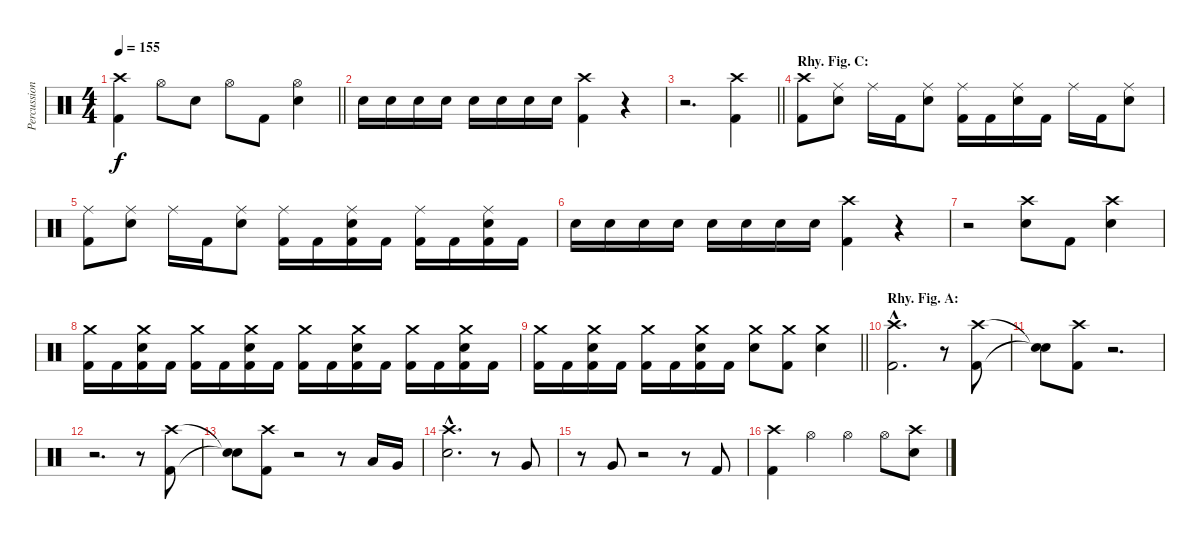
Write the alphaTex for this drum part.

\track ("Percussion" "Percussion") {instrument percussion}
\staff {score}
\articulation defaults
\ts (4 4)
\tempo 155
\clef neutral
\barLineRight lightlight
\ks c
("Crash high (hit)" "Kick (hit) 2").4{dy f} "Hi-Hat (open)".8 "Electric Snare (hit)".8 "Hi-Hat (open)".8 "Kick (hit) 2".8 ("Hi-Hat (open)" "Electric Snare (hit)").4 |
"Electric Snare (hit)".16 "Electric Snare (hit)".16 "Electric Snare (hit)".16 "Electric Snare (hit)".16 "Electric Snare (hit)".16 "Electric Snare (hit)".16 "Electric Snare (hit)".16 "Electric Snare (hit)".16 ("Crash high (hit)" "Kick (hit) 2").4 r.4 |
\barLineRight lightlight
r.2{d} ("Crash high (hit)" "Kick (hit) 2").4 |
\section ("" "Rhy. Fig. C:")
("Crash high (hit)" "Kick (hit) 2").8 ("Ride (middle)" "Electric Snare (hit)").8 "Ride (middle)".16 "Kick (hit) 2".16 ("Ride (middle)" "Electric Snare (hit)").8 ("Ride (middle)" "Kick (hit) 2").16 "Kick (hit) 2".16 ("Ride (middle)" "Electric Snare (hit)").16 "Kick (hit) 2".16 "Ride (middle)".16 "Kick (hit) 2".16 ("Ride (middle)" "Electric Snare (hit)").8 |
("Ride (middle)" "Kick (hit) 2").8 ("Ride (middle)" "Electric Snare (hit)").8 "Ride (middle)".16 "Kick (hit) 2".16 ("Ride (middle)" "Electric Snare (hit)").8 ("Ride (middle)" "Kick (hit) 2").16 "Kick (hit) 2".16 ("Ride (middle)" "Electric Snare (hit)" "Kick (hit) 2").16 "Kick (hit) 2".16 ("Ride (middle)" "Kick (hit) 2").16 "Kick (hit) 2".16 ("Ride (middle)" "Electric Snare (hit)" "Kick (hit) 2").16 "Kick (hit) 2".16 |
"Electric Snare (hit)".16 "Electric Snare (hit)".16 "Electric Snare (hit)".16 "Electric Snare (hit)".16 "Electric Snare (hit)".16 "Electric Snare (hit)".16 "Electric Snare (hit)".16 "Electric Snare (hit)".16 ("Crash high (hit)" "Kick (hit) 2").4 r.4 |
r.2 ("Crash high (hit)" "Electric Snare (hit)").8 "Kick (hit) 2".8 ("Crash high (hit)" "Electric Snare (hit)").4 |
("Crash medium (hit)" "Kick (hit) 2").16 "Kick (hit) 2".16 ("Crash medium (hit)" "Electric Snare (hit)" "Kick (hit) 2").16 "Kick (hit) 2".16 ("Crash medium (hit)" "Kick (hit) 2").16 "Kick (hit) 2".16 ("Crash medium (hit)" "Electric Snare (hit)" "Kick (hit) 2").16 "Kick (hit) 2".16 ("Crash medium (hit)" "Kick (hit) 2").16 "Kick (hit) 2".16 ("Crash medium (hit)" "Electric Snare (hit)" "Kick (hit) 2").16 "Kick (hit) 2".16 ("Crash medium (hit)" "Kick (hit) 2").16 "Kick (hit) 2".16 ("Crash medium (hit)" "Electric Snare (hit)" "Kick (hit) 2").16 "Kick (hit) 2".16 |
\barLineRight lightlight
("Crash medium (hit)" "Kick (hit) 2").16 "Kick (hit) 2".16 ("Crash medium (hit)" "Electric Snare (hit)" "Kick (hit) 2").16 "Kick (hit) 2".16 ("Crash medium (hit)" "Kick (hit) 2").16 "Kick (hit) 2".16 ("Crash medium (hit)" "Electric Snare (hit)" "Kick (hit) 2").16 "Kick (hit) 2".16 ("Crash medium (hit)" "Electric Snare (hit)").8 ("Crash medium (hit)" "Kick (hit) 2").8 ("Crash medium (hit)" "Electric Snare (hit)").4 |
\section ("" "Rhy. Fig. A:")
("Crash high (hit)"{hac} "Kick (hit) 2"{hac}).2{d} r.8 ("Crash high (hit)" "Kick (hit) 2").8 |
("Snare (hit)"{t} "Snare (hit)"{t}).8 ("Crash high (hit)" "Kick (hit) 2").8 r.2{d} |
r.2{d} r.8 ("Crash high (hit)" "Kick (hit) 2").8 |
("Snare (hit)"{t} "Snare (hit)"{t}).8 ("Crash high (hit)" "Kick (hit) 2").8 r.2 r.8 "Low Tom (hit)".16 "Very Low Tom (hit)".16 |
("Crash high (hit)"{hac} "Electric Snare (hit)"{hac}).2{d} r.8 "Very Low Tom (hit)".8 |
r.8 "Very Low Tom (hit)".8 r.2 r.8 "Kick (hit) 2".8 |
("Crash high (hit)" "Kick (hit) 2").4 "Hi-Hat (open)".4 "Hi-Hat (open)".4 "Hi-Hat (open)".8 ("Crash high (hit)" "Electric Snare (hit)").8
